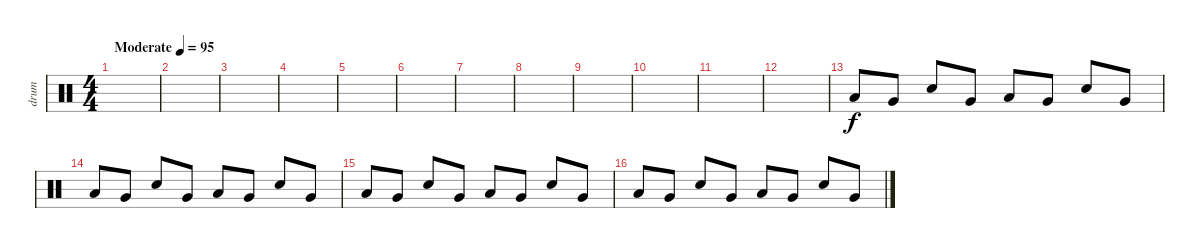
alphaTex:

\track ("drum" "drum") {instrument percussion}
\staff {score}
\articulation defaults
\ts (4 4)
\section ("" "")
\tempo (95 "Moderate")
\clef neutral
\ks c
|
|
|
|
|
|
|
|
|
|
|
|
"Low Floor Tom (hit)".8 "Very Low Tom (hit)".8 "Snare (hit) 2".8 "Very Low Tom (hit)".8 "Low Floor Tom (hit)".8 "Very Low Tom (hit)".8 "Snare (hit) 2".8 "Very Low Tom (hit)".8 |
"Low Floor Tom (hit)".8 "Very Low Tom (hit)".8 "Snare (hit) 2".8 "Very Low Tom (hit)".8 "Low Floor Tom (hit)".8 "Very Low Tom (hit)".8 "Snare (hit) 2".8 "Very Low Tom (hit)".8 |
"Low Floor Tom (hit)".8 "Very Low Tom (hit)".8 "Snare (hit) 2".8 "Very Low Tom (hit)".8 "Low Floor Tom (hit)".8 "Very Low Tom (hit)".8 "Snare (hit) 2".8 "Very Low Tom (hit)".8 |
"Low Floor Tom (hit)".8 "Very Low Tom (hit)".8 "Snare (hit) 2".8 "Very Low Tom (hit)".8 "Low Floor Tom (hit)".8 "Very Low Tom (hit)".8 "Snare (hit) 2".8 "Very Low Tom (hit)".8
